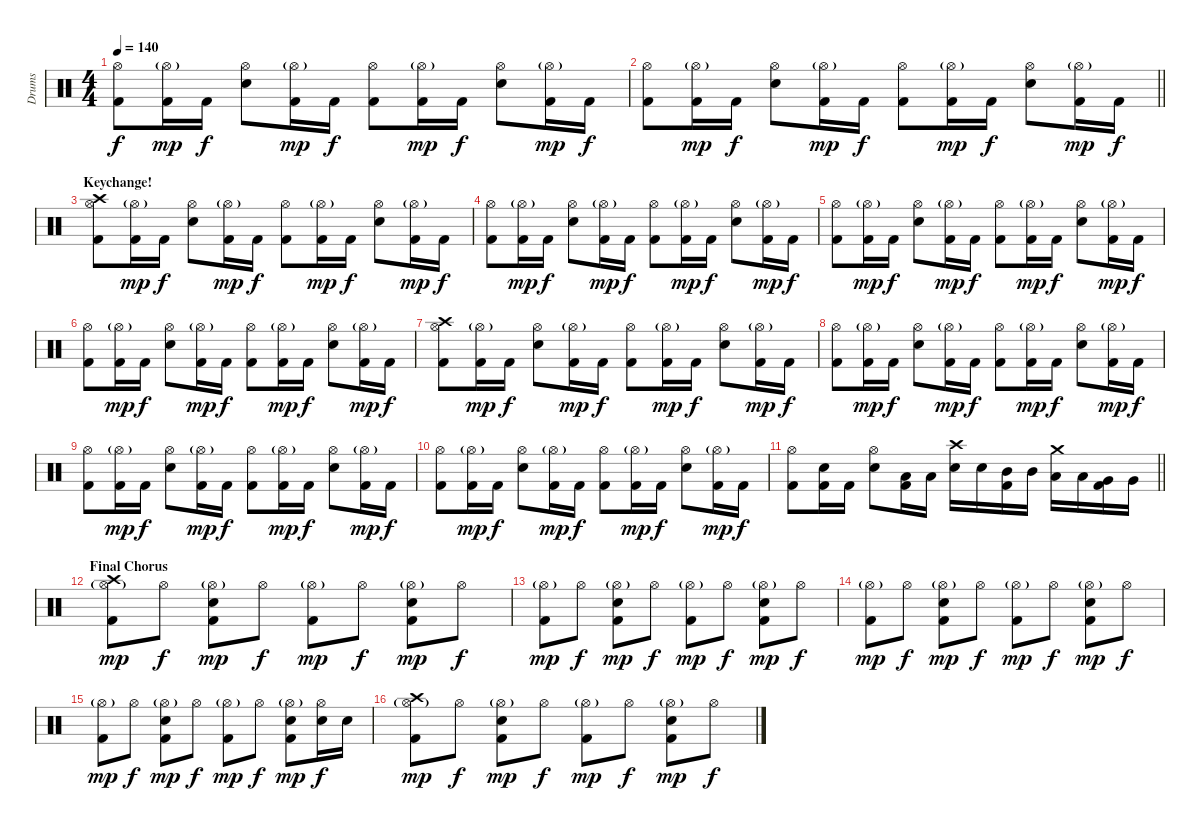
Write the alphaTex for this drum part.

\track ("Drums" "Drums") {instrument percussion}
\staff {score}
\articulation defaults
\ts (4 4)
\tempo 140
\clef neutral
\ks c
("Hi-Hat (open)" "Kick (hit) 2").8{dy f} ("Hi-Hat (open)"{g} "Kick (hit) 2").16{dy mp} "Kick (hit) 2".16{dy f} ("Hi-Hat (open)" "Snare (hit) 2").8 ("Hi-Hat (open)"{g} "Kick (hit) 2").16{dy mp} "Kick (hit) 2".16{dy f} ("Hi-Hat (open)" "Kick (hit) 2").8 ("Hi-Hat (open)"{g} "Kick (hit) 2").16{dy mp} "Kick (hit) 2".16{dy f} ("Hi-Hat (open)" "Snare (hit) 2").8 ("Hi-Hat (open)"{g} "Kick (hit) 2").16{dy mp} "Kick (hit) 2".16{dy f} |
\barLineRight lightlight
("Hi-Hat (open)" "Kick (hit) 2").8 ("Hi-Hat (open)"{g} "Kick (hit) 2").16{dy mp} "Kick (hit) 2".16{dy f} ("Hi-Hat (open)" "Snare (hit) 2").8 ("Hi-Hat (open)"{g} "Kick (hit) 2").16{dy mp} "Kick (hit) 2".16{dy f} ("Hi-Hat (open)" "Kick (hit) 2").8 ("Hi-Hat (open)"{g} "Kick (hit) 2").16{dy mp} "Kick (hit) 2".16{dy f} ("Hi-Hat (open)" "Snare (hit) 2").8 ("Hi-Hat (open)"{g} "Kick (hit) 2").16{dy mp} "Kick (hit) 2".16{dy f} |
\section ("" "Keychange!")
("Crash high (hit)" "Hi-Hat (open)" "Kick (hit) 2").8 ("Hi-Hat (open)"{g} "Kick (hit) 2").16{dy mp} "Kick (hit) 2".16{dy f} ("Hi-Hat (open)" "Snare (hit) 2").8 ("Hi-Hat (open)"{g} "Kick (hit) 2").16{dy mp} "Kick (hit) 2".16{dy f} ("Hi-Hat (open)" "Kick (hit) 2").8 ("Hi-Hat (open)"{g} "Kick (hit) 2").16{dy mp} "Kick (hit) 2".16{dy f} ("Hi-Hat (open)" "Snare (hit) 2").8 ("Hi-Hat (open)"{g} "Kick (hit) 2").16{dy mp} "Kick (hit) 2".16{dy f} |
("Hi-Hat (open)" "Kick (hit) 2").8 ("Hi-Hat (open)"{g} "Kick (hit) 2").16{dy mp} "Kick (hit) 2".16{dy f} ("Hi-Hat (open)" "Snare (hit) 2").8 ("Hi-Hat (open)"{g} "Kick (hit) 2").16{dy mp} "Kick (hit) 2".16{dy f} ("Hi-Hat (open)" "Kick (hit) 2").8 ("Hi-Hat (open)"{g} "Kick (hit) 2").16{dy mp} "Kick (hit) 2".16{dy f} ("Hi-Hat (open)" "Snare (hit) 2").8 ("Hi-Hat (open)"{g} "Kick (hit) 2").16{dy mp} "Kick (hit) 2".16{dy f} |
("Hi-Hat (open)" "Kick (hit) 2").8 ("Hi-Hat (open)"{g} "Kick (hit) 2").16{dy mp} "Kick (hit) 2".16{dy f} ("Hi-Hat (open)" "Snare (hit) 2").8 ("Hi-Hat (open)"{g} "Kick (hit) 2").16{dy mp} "Kick (hit) 2".16{dy f} ("Hi-Hat (open)" "Kick (hit) 2").8 ("Hi-Hat (open)"{g} "Kick (hit) 2").16{dy mp} "Kick (hit) 2".16{dy f} ("Hi-Hat (open)" "Snare (hit) 2").8 ("Hi-Hat (open)"{g} "Kick (hit) 2").16{dy mp} "Kick (hit) 2".16{dy f} |
("Hi-Hat (open)" "Kick (hit) 2").8 ("Hi-Hat (open)"{g} "Kick (hit) 2").16{dy mp} "Kick (hit) 2".16{dy f} ("Hi-Hat (open)" "Snare (hit) 2").8 ("Hi-Hat (open)"{g} "Kick (hit) 2").16{dy mp} "Kick (hit) 2".16{dy f} ("Hi-Hat (open)" "Kick (hit) 2").8 ("Hi-Hat (open)"{g} "Kick (hit) 2").16{dy mp} "Kick (hit) 2".16{dy f} ("Hi-Hat (open)" "Snare (hit) 2").8 ("Hi-Hat (open)"{g} "Kick (hit) 2").16{dy mp} "Kick (hit) 2".16{dy f} |
("Crash high (hit)" "Hi-Hat (open)" "Kick (hit) 2").8 ("Hi-Hat (open)"{g} "Kick (hit) 2").16{dy mp} "Kick (hit) 2".16{dy f} ("Hi-Hat (open)" "Snare (hit) 2").8 ("Hi-Hat (open)"{g} "Kick (hit) 2").16{dy mp} "Kick (hit) 2".16{dy f} ("Hi-Hat (open)" "Kick (hit) 2").8 ("Hi-Hat (open)"{g} "Kick (hit) 2").16{dy mp} "Kick (hit) 2".16{dy f} ("Hi-Hat (open)" "Snare (hit) 2").8 ("Hi-Hat (open)"{g} "Kick (hit) 2").16{dy mp} "Kick (hit) 2".16{dy f} |
("Hi-Hat (open)" "Kick (hit) 2").8 ("Hi-Hat (open)"{g} "Kick (hit) 2").16{dy mp} "Kick (hit) 2".16{dy f} ("Hi-Hat (open)" "Snare (hit) 2").8 ("Hi-Hat (open)"{g} "Kick (hit) 2").16{dy mp} "Kick (hit) 2".16{dy f} ("Hi-Hat (open)" "Kick (hit) 2").8 ("Hi-Hat (open)"{g} "Kick (hit) 2").16{dy mp} "Kick (hit) 2".16{dy f} ("Hi-Hat (open)" "Snare (hit) 2").8 ("Hi-Hat (open)"{g} "Kick (hit) 2").16{dy mp} "Kick (hit) 2".16{dy f} |
("Hi-Hat (open)" "Kick (hit) 2").8 ("Hi-Hat (open)"{g} "Kick (hit) 2").16{dy mp} "Kick (hit) 2".16{dy f} ("Hi-Hat (open)" "Snare (hit) 2").8 ("Hi-Hat (open)"{g} "Kick (hit) 2").16{dy mp} "Kick (hit) 2".16{dy f} ("Hi-Hat (open)" "Kick (hit) 2").8 ("Hi-Hat (open)"{g} "Kick (hit) 2").16{dy mp} "Kick (hit) 2".16{dy f} ("Hi-Hat (open)" "Snare (hit) 2").8 ("Hi-Hat (open)"{g} "Kick (hit) 2").16{dy mp} "Kick (hit) 2".16{dy f} |
("Hi-Hat (open)" "Kick (hit) 2").8 ("Hi-Hat (open)"{g} "Kick (hit) 2").16{dy mp} "Kick (hit) 2".16{dy f} ("Hi-Hat (open)" "Snare (hit) 2").8 ("Hi-Hat (open)"{g} "Kick (hit) 2").16{dy mp} "Kick (hit) 2".16{dy f} ("Hi-Hat (open)" "Kick (hit) 2").8 ("Hi-Hat (open)"{g} "Kick (hit) 2").16{dy mp} "Kick (hit) 2".16{dy f} ("Hi-Hat (open)" "Snare (hit) 2").8 ("Hi-Hat (open)"{g} "Kick (hit) 2").16{dy mp} "Kick (hit) 2".16{dy f} |
\barLineRight lightlight
("Hi-Hat (open)" "Kick (hit) 2").8 ("Snare (hit) 2" "Kick (hit) 2").16 "Kick (hit) 2".16 ("Hi-Hat (open)" "Snare (hit) 2").8 ("Low Tom (hit)" "Kick (hit) 2").16 "Low Tom (hit)".16 ("Crash high (hit)" "Snare (hit) 2").16 "Snare (hit) 2".16 ("Mid Tom (hit)" "Kick (hit) 2").16 "Mid Tom (hit)".16 ("Crash medium (hit)" "Low Tom (hit)").16 "Low Tom (hit)".16 ("Very Low Tom (hit)" "Kick (hit) 2").16 "Very Low Tom (hit)".16 |
\section ("" "Final Chorus")
("Crash high (hit)" "Hi-Hat (open)"{g} "Kick (hit) 2").8{dy mp} "Hi-Hat (open)".8{dy f} ("Hi-Hat (open)"{g} "Snare (hit) 2" "Kick (hit) 2").8{dy mp} "Hi-Hat (open)".8{dy f} ("Hi-Hat (open)"{g} "Kick (hit) 2").8{dy mp} "Hi-Hat (open)".8{dy f} ("Hi-Hat (open)"{g} "Snare (hit) 2" "Kick (hit) 2").8{dy mp} "Hi-Hat (open)".8{dy f} |
("Hi-Hat (open)"{g} "Kick (hit) 2").8{dy mp} "Hi-Hat (open)".8{dy f} ("Hi-Hat (open)"{g} "Snare (hit) 2" "Kick (hit) 2").8{dy mp} "Hi-Hat (open)".8{dy f} ("Hi-Hat (open)"{g} "Kick (hit) 2").8{dy mp} "Hi-Hat (open)".8{dy f} ("Hi-Hat (open)"{g} "Snare (hit) 2" "Kick (hit) 2").8{dy mp} "Hi-Hat (open)".8{dy f} |
("Hi-Hat (open)"{g} "Kick (hit) 2").8{dy mp} "Hi-Hat (open)".8{dy f} ("Hi-Hat (open)"{g} "Snare (hit) 2" "Kick (hit) 2").8{dy mp} "Hi-Hat (open)".8{dy f} ("Hi-Hat (open)"{g} "Kick (hit) 2").8{dy mp} "Hi-Hat (open)".8{dy f} ("Hi-Hat (open)"{g} "Snare (hit) 2" "Kick (hit) 2").8{dy mp} "Hi-Hat (open)".8{dy f} |
("Hi-Hat (open)"{g} "Kick (hit) 2").8{dy mp} "Hi-Hat (open)".8{dy f} ("Hi-Hat (open)"{g} "Snare (hit) 2" "Kick (hit) 2").8{dy mp} "Hi-Hat (open)".8{dy f} ("Hi-Hat (open)"{g} "Kick (hit) 2").8{dy mp} "Hi-Hat (open)".8{dy f} ("Hi-Hat (open)"{g} "Snare (hit) 2" "Kick (hit) 2").8{dy mp} ("Hi-Hat (open)" "Snare (hit) 2").16{dy f} "Snare (hit) 2".16 |
("Crash high (hit)" "Hi-Hat (open)"{g} "Kick (hit) 2").8{dy mp} "Hi-Hat (open)".8{dy f} ("Hi-Hat (open)"{g} "Snare (hit) 2" "Kick (hit) 2").8{dy mp} "Hi-Hat (open)".8{dy f} ("Hi-Hat (open)"{g} "Kick (hit) 2").8{dy mp} "Hi-Hat (open)".8{dy f} ("Hi-Hat (open)"{g} "Snare (hit) 2" "Kick (hit) 2").8{dy mp} "Hi-Hat (open)".8{dy f}
